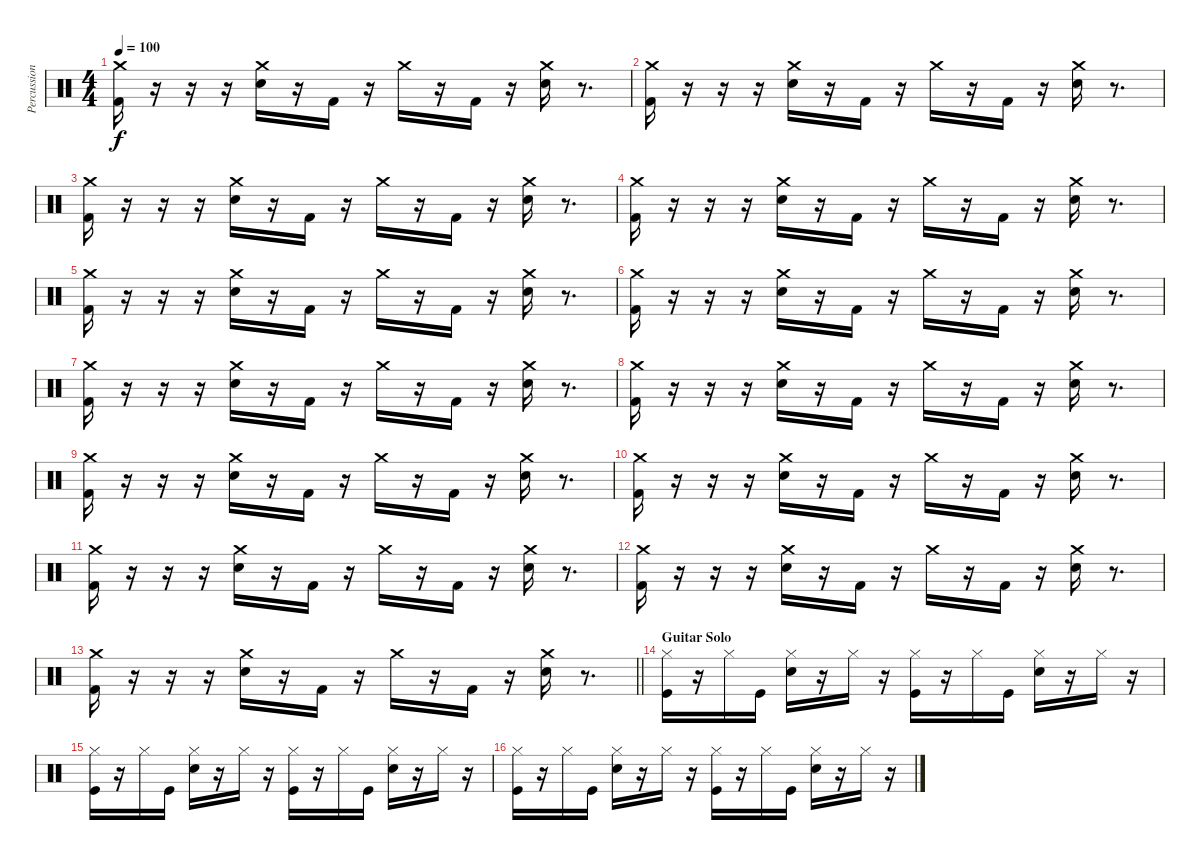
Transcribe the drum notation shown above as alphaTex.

\track ("Percussion (Chad Smith)" "Percussion") {instrument percussion}
\staff {score}
\articulation defaults
\ts (4 4)
\tempo 100
\clef neutral
\ks c
("Crash medium (hit)" "Kick (hit) 2").16{dy f} r.16 r.16 r.16 ("Crash medium (hit)" "Electric Snare (hit)").16 r.16 "Kick (hit) 2".16 r.16 "Crash medium (hit)".16 r.16 "Kick (hit) 2".16 r.16 ("Crash medium (hit)" "Electric Snare (hit)").16 r.8{d} |
("Crash medium (hit)" "Kick (hit) 2").16 r.16 r.16 r.16 ("Crash medium (hit)" "Electric Snare (hit)").16 r.16 "Kick (hit) 2".16 r.16 "Crash medium (hit)".16 r.16 "Kick (hit) 2".16 r.16 ("Crash medium (hit)" "Electric Snare (hit)").16 r.8{d} |
("Crash medium (hit)" "Kick (hit) 2").16 r.16 r.16 r.16 ("Crash medium (hit)" "Electric Snare (hit)").16 r.16 "Kick (hit) 2".16 r.16 "Crash medium (hit)".16 r.16 "Kick (hit) 2".16 r.16 ("Crash medium (hit)" "Electric Snare (hit)").16 r.8{d} |
("Crash medium (hit)" "Kick (hit) 2").16 r.16 r.16 r.16 ("Crash medium (hit)" "Electric Snare (hit)").16 r.16 "Kick (hit) 2".16 r.16 "Crash medium (hit)".16 r.16 "Kick (hit) 2".16 r.16 ("Crash medium (hit)" "Electric Snare (hit)").16 r.8{d} |
("Crash medium (hit)" "Kick (hit) 2").16 r.16 r.16 r.16 ("Crash medium (hit)" "Electric Snare (hit)").16 r.16 "Kick (hit) 2".16 r.16 "Crash medium (hit)".16 r.16 "Kick (hit) 2".16 r.16 ("Crash medium (hit)" "Electric Snare (hit)").16 r.8{d} |
("Crash medium (hit)" "Kick (hit) 2").16 r.16 r.16 r.16 ("Crash medium (hit)" "Electric Snare (hit)").16 r.16 "Kick (hit) 2".16 r.16 "Crash medium (hit)".16 r.16 "Kick (hit) 2".16 r.16 ("Crash medium (hit)" "Electric Snare (hit)").16 r.8{d} |
("Crash medium (hit)" "Kick (hit) 2").16 r.16 r.16 r.16 ("Crash medium (hit)" "Electric Snare (hit)").16 r.16 "Kick (hit) 2".16 r.16 "Crash medium (hit)".16 r.16 "Kick (hit) 2".16 r.16 ("Crash medium (hit)" "Electric Snare (hit)").16 r.8{d} |
("Crash medium (hit)" "Kick (hit) 2").16 r.16 r.16 r.16 ("Crash medium (hit)" "Electric Snare (hit)").16 r.16 "Kick (hit) 2".16 r.16 "Crash medium (hit)".16 r.16 "Kick (hit) 2".16 r.16 ("Crash medium (hit)" "Electric Snare (hit)").16 r.8{d} |
("Crash medium (hit)" "Kick (hit) 2").16 r.16 r.16 r.16 ("Crash medium (hit)" "Electric Snare (hit)").16 r.16 "Kick (hit) 2".16 r.16 "Crash medium (hit)".16 r.16 "Kick (hit) 2".16 r.16 ("Crash medium (hit)" "Electric Snare (hit)").16 r.8{d} |
("Crash medium (hit)" "Kick (hit) 2").16 r.16 r.16 r.16 ("Crash medium (hit)" "Electric Snare (hit)").16 r.16 "Kick (hit) 2".16 r.16 "Crash medium (hit)".16 r.16 "Kick (hit) 2".16 r.16 ("Crash medium (hit)" "Electric Snare (hit)").16 r.8{d} |
("Crash medium (hit)" "Kick (hit) 2").16 r.16 r.16 r.16 ("Crash medium (hit)" "Electric Snare (hit)").16 r.16 "Kick (hit) 2".16 r.16 "Crash medium (hit)".16 r.16 "Kick (hit) 2".16 r.16 ("Crash medium (hit)" "Electric Snare (hit)").16 r.8{d} |
("Crash medium (hit)" "Kick (hit) 2").16 r.16 r.16 r.16 ("Crash medium (hit)" "Electric Snare (hit)").16 r.16 "Kick (hit) 2".16 r.16 "Crash medium (hit)".16 r.16 "Kick (hit) 2".16 r.16 ("Crash medium (hit)" "Electric Snare (hit)").16 r.8{d} |
\barLineRight lightlight
("Crash medium (hit)" "Kick (hit) 2").16 r.16 r.16 r.16 ("Crash medium (hit)" "Electric Snare (hit)").16 r.16 "Kick (hit) 2".16 r.16 "Crash medium (hit)".16 r.16 "Kick (hit) 2".16 r.16 ("Crash medium (hit)" "Electric Snare (hit)").16 r.8{d} |
\section ("" "Guitar Solo")
("Hi-Hat (closed)" "Kick (hit)").16 r.16 "Hi-Hat (closed)".16 "Kick (hit)".16 ("Hi-Hat (closed)" "Snare (hit) 2").16 r.16 "Hi-Hat (closed)".16 r.16 ("Hi-Hat (closed)" "Kick (hit)").16 r.16 "Hi-Hat (closed)".16 "Kick (hit)".16 ("Hi-Hat (closed)" "Snare (hit) 2").16 r.16 "Hi-Hat (closed)".16 r.16 |
("Hi-Hat (closed)" "Kick (hit)").16 r.16 "Hi-Hat (closed)".16 "Kick (hit)".16 ("Hi-Hat (closed)" "Snare (hit) 2").16 r.16 "Hi-Hat (closed)".16 r.16 ("Hi-Hat (closed)" "Kick (hit)").16 r.16 "Hi-Hat (closed)".16 "Kick (hit)".16 ("Hi-Hat (closed)" "Snare (hit) 2").16 r.16 "Hi-Hat (closed)".16 r.16 |
("Hi-Hat (closed)" "Kick (hit)").16 r.16 "Hi-Hat (closed)".16 "Kick (hit)".16 ("Hi-Hat (closed)" "Snare (hit) 2").16 r.16 "Hi-Hat (closed)".16 r.16 ("Hi-Hat (closed)" "Kick (hit)").16 r.16 "Hi-Hat (closed)".16 "Kick (hit)".16 ("Hi-Hat (closed)" "Snare (hit) 2").16 r.16 "Hi-Hat (closed)".16 r.16
